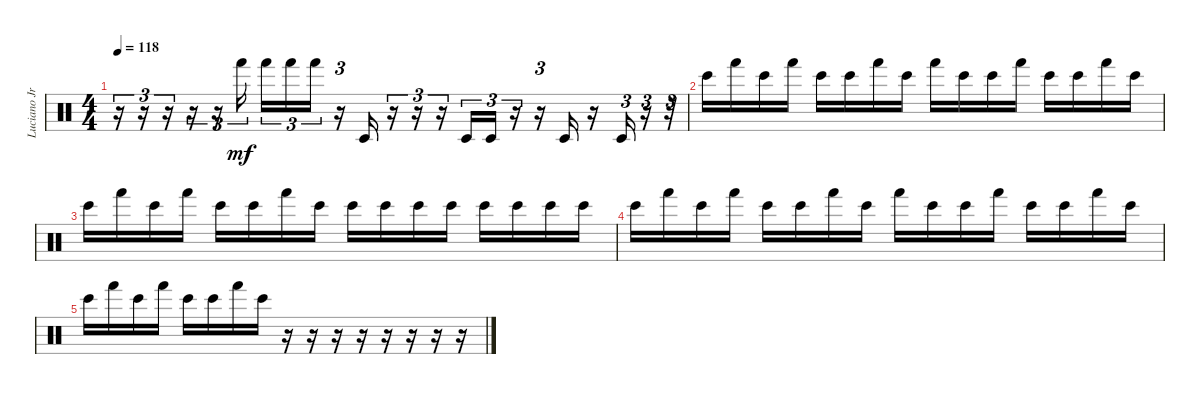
\track ("Luciano Jr." "Luciano Jr") {instrument percussion}
\staff {score}
\articulation defaults
\ts (4 4)
\tempo 118
\clef neutral
\ks c
r.16{tu (3 2) dy mf} r.16{tu (3 2)} r.16{tu (3 2)} r.16{tu (3 2)} r.16{tu (3 2)} "Hand (hit)".16{tu (3 2)} "Hand (hit)".16{tu (3 2)} "Hand (hit)".16{tu (3 2)} "Hand (hit)".16{tu (3 2)} r.16{tu (3 2)} "Timbale low (hit)".16 r.16{tu (3 2)} r.16{tu (3 2)} r.16{tu (3 2)} "Timbale low (hit)".16{tu (3 2)} "Timbale low (hit)".16{tu (3 2)} r.16{tu (3 2)} r.16{tu (3 2)} "Timbale low (hit)".16 r.16 "Timbale low (hit)".16{tu (3 2)} r.16{tu (3 2)} r.32{tu (3 2)} |
"Bongo High (hit)".16 "Hand (hit)".16 "Bongo High (hit)".16 "Hand (hit)".16 "Bongo High (hit)".16 "Bongo High (hit)".16 "Hand (hit)".16 "Bongo High (hit)".16 "Hand (hit)".16 "Bongo High (hit)".16 "Bongo High (hit)".16 "Hand (hit)".16 "Bongo High (hit)".16 "Bongo High (hit)".16 "Hand (hit)".16 "Bongo High (hit)".16 |
"Bongo High (hit)".16 "Hand (hit)".16 "Bongo High (hit)".16 "Hand (hit)".16 "Bongo High (hit)".16 "Bongo High (hit)".16 "Hand (hit)".16 "Bongo High (hit)".16 "Bongo High (hit)".16 "Bongo High (hit)".16 "Bongo High (hit)".16 "Bongo High (hit)".16 "Bongo High (hit)".16 "Bongo High (hit)".16 "Bongo High (hit)".16 "Bongo High (hit)".16 |
"Bongo High (hit)".16 "Hand (hit)".16 "Bongo High (hit)".16 "Hand (hit)".16 "Bongo High (hit)".16 "Bongo High (hit)".16 "Hand (hit)".16 "Bongo High (hit)".16 "Hand (hit)".16 "Bongo High (hit)".16 "Bongo High (hit)".16 "Hand (hit)".16 "Bongo High (hit)".16 "Bongo High (hit)".16 "Hand (hit)".16 "Bongo High (hit)".16 |
"Bongo High (hit)".16 "Hand (hit)".16 "Bongo High (hit)".16 "Hand (hit)".16 "Bongo High (hit)".16 "Bongo High (hit)".16 "Hand (hit)".16 "Bongo High (hit)".16 r.16 r.16 r.16 r.16 r.16 r.16 r.16 r.16
